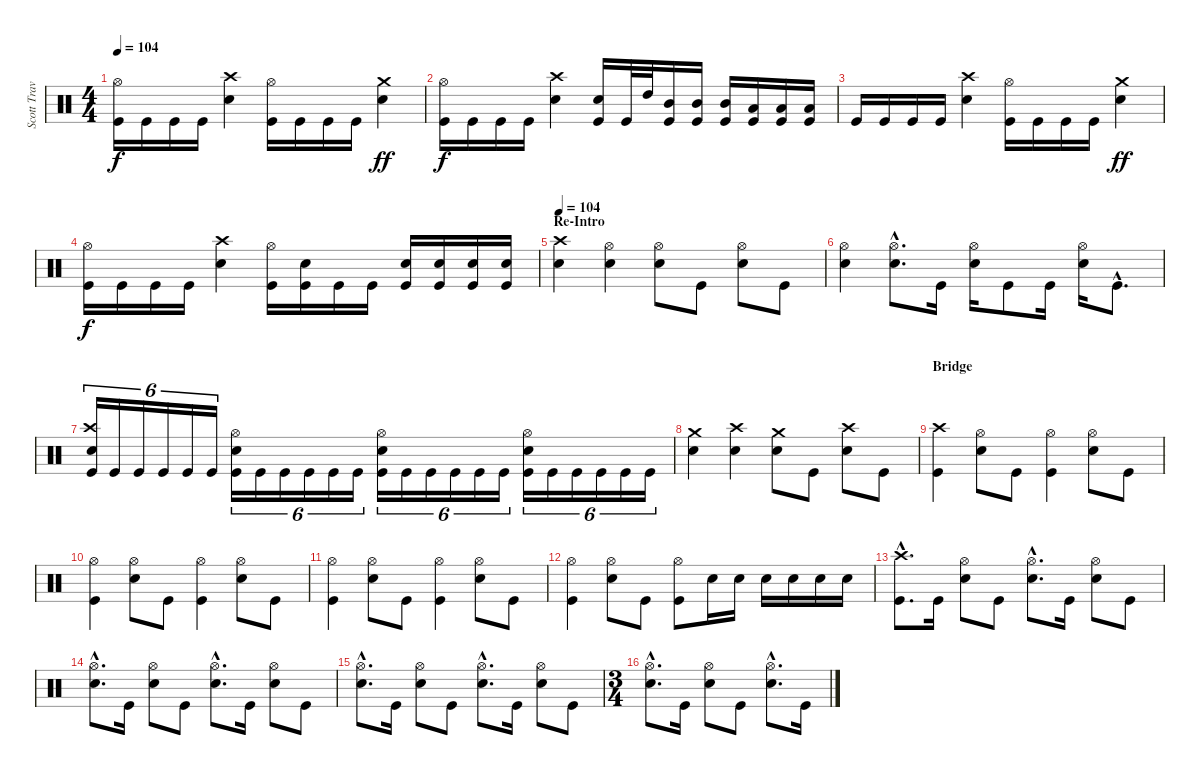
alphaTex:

\track ("Scott Travis" "Scott Trav") {instrument percussion}
\staff {score}
\articulation defaults
\ts (4 4)
\tempo 104
\clef neutral
\ks c
("Hi-Hat (open)" "Kick (hit)").16{dy f} "Kick (hit)".16 "Kick (hit)".16 "Kick (hit)".16 ("Crash high (hit)" "Electric Snare (hit)").4 ("Hi-Hat (open)" "Kick (hit)").16 "Kick (hit)".16 "Kick (hit)".16 "Kick (hit)".16 ("Crash medium (hit)" "Electric Snare (hit)").4{dy ff} |
("Hi-Hat (open)" "Kick (hit)").16{dy f} "Kick (hit)".16 "Kick (hit)".16 "Kick (hit)".16 ("Crash high (hit)" "Electric Snare (hit)").4 ("Electric Snare (hit)" "Kick (hit)").16 "Kick (hit)".32 "High Tom (hit)".32 ("Mid Tom (hit)" "Kick (hit)").16 ("Mid Tom (hit)" "Kick (hit)").16 ("Mid Tom (hit)" "Kick (hit)").16 ("Low Tom (hit)" "Kick (hit)").16 ("Low Tom (hit)" "Kick (hit)").16 ("Low Tom (hit)" "Kick (hit)").16 |
"Kick (hit)".16 "Kick (hit)".16 "Kick (hit)".16 "Kick (hit)".16 ("Crash high (hit)" "Electric Snare (hit)").4 ("Hi-Hat (open)" "Kick (hit)").16 "Kick (hit)".16 "Kick (hit)".16 "Kick (hit)".16 ("Crash medium (hit)" "Electric Snare (hit)").4{dy ff} |
("Hi-Hat (open)" "Kick (hit)").16{dy f} "Kick (hit)".16 "Kick (hit)".16 "Kick (hit)".16 ("Crash high (hit)" "Electric Snare (hit)").4 ("Hi-Hat (open)" "Kick (hit)").16 ("Electric Snare (hit)" "Kick (hit)").16 "Kick (hit)".16 "Kick (hit)".16 ("Electric Snare (hit)" "Kick (hit)").16 ("Electric Snare (hit)" "Kick (hit)").16 ("Electric Snare (hit)" "Kick (hit)").16 ("Electric Snare (hit)" "Kick (hit)").16 |
\section ("" "Re-Intro")
\tempo 104
("Crash high (hit)" "Electric Snare (hit)").4 ("Hi-Hat (open)" "Electric Snare (hit)").4 ("Hi-Hat (open)" "Electric Snare (hit)").8 "Kick (hit)".8 ("Hi-Hat (open)" "Electric Snare (hit)").8 "Kick (hit)".8 |
("Hi-Hat (open)" "Electric Snare (hit)").4 ("Hi-Hat (open)"{hac} "Electric Snare (hit)"{hac}).8{d} "Kick (hit)".16 ("Hi-Hat (open)" "Electric Snare (hit)").16 "Kick (hit)".8 "Kick (hit)".16 ("Hi-Hat (open)" "Electric Snare (hit)").16 "Kick (hit)"{hac}.8{d} |
("Crash high (hit)" "Electric Snare (hit)" "Kick (hit)").16{tu (6 4)} "Kick (hit)".16{tu (6 4)} "Kick (hit)".16{tu (6 4)} "Kick (hit)".16{tu (6 4)} "Kick (hit)".16{tu (6 4)} "Kick (hit)".16{tu (6 4)} ("Hi-Hat (open)" "Electric Snare (hit)" "Kick (hit)").16{tu (6 4)} "Kick (hit)".16{tu (6 4)} "Kick (hit)".16{tu (6 4)} "Kick (hit)".16{tu (6 4)} "Kick (hit)".16{tu (6 4)} "Kick (hit)".16{tu (6 4)} ("Hi-Hat (open)" "Electric Snare (hit)" "Kick (hit)").16{tu (6 4)} "Kick (hit)".16{tu (6 4)} "Kick (hit)".16{tu (6 4)} "Kick (hit)".16{tu (6 4)} "Kick (hit)".16{tu (6 4)} "Kick (hit)".16{tu (6 4)} ("Hi-Hat (open)" "Electric Snare (hit)" "Kick (hit)").16{tu (6 4)} "Kick (hit)".16{tu (6 4)} "Kick (hit)".16{tu (6 4)} "Kick (hit)".16{tu (6 4)} "Kick (hit)".16{tu (6 4)} "Kick (hit)".16{tu (6 4)} |
("Crash medium (hit)" "Electric Snare (hit)").4 ("Crash high (hit)" "Electric Snare (hit)").4 ("Crash medium (hit)" "Electric Snare (hit)").8 "Kick (hit)".8 ("Crash high (hit)" "Electric Snare (hit)").8 "Kick (hit)".8 |
\section ("" "Bridge")
("Crash high (hit)" "Kick (hit)").4 ("Hi-Hat (open)" "Electric Snare (hit)").8 "Kick (hit)".8 ("Hi-Hat (open)" "Kick (hit)").4 ("Hi-Hat (open)" "Electric Snare (hit)").8 "Kick (hit)".8 |
("Hi-Hat (open)" "Kick (hit)").4 ("Hi-Hat (open)" "Electric Snare (hit)").8 "Kick (hit)".8 ("Hi-Hat (open)" "Kick (hit)").4 ("Hi-Hat (open)" "Electric Snare (hit)").8 "Kick (hit)".8 |
("Hi-Hat (open)" "Kick (hit)").4 ("Hi-Hat (open)" "Electric Snare (hit)").8 "Kick (hit)".8 ("Hi-Hat (open)" "Kick (hit)").4 ("Hi-Hat (open)" "Electric Snare (hit)").8 "Kick (hit)".8 |
("Hi-Hat (open)" "Kick (hit)").4 ("Hi-Hat (open)" "Electric Snare (hit)").8 "Kick (hit)".8 ("Hi-Hat (open)" "Kick (hit)").8 "Electric Snare (hit)".16 "Electric Snare (hit)".16 "Electric Snare (hit)".16 "Electric Snare (hit)".16 "Electric Snare (hit)".16 "Electric Snare (hit)".16 |
("Crash high (hit)"{hac} "Kick (hit)"{hac}).8{d} "Kick (hit)".16 ("Hi-Hat (open)" "Electric Snare (hit)").8 "Kick (hit)".8 ("Hi-Hat (open)"{hac} "Electric Snare (hit)"{hac}).8{d} "Kick (hit)".16 ("Hi-Hat (open)" "Electric Snare (hit)").8 "Kick (hit)".8 |
("Hi-Hat (open)"{hac} "Electric Snare (hit)"{hac}).8{d} "Kick (hit)".16 ("Hi-Hat (open)" "Electric Snare (hit)").8 "Kick (hit)".8 ("Hi-Hat (open)"{hac} "Electric Snare (hit)"{hac}).8{d} "Kick (hit)".16 ("Hi-Hat (open)" "Electric Snare (hit)").8 "Kick (hit)".8 |
("Hi-Hat (open)"{hac} "Electric Snare (hit)"{hac}).8{d} "Kick (hit)".16 ("Hi-Hat (open)" "Electric Snare (hit)").8 "Kick (hit)".8 ("Hi-Hat (open)"{hac} "Electric Snare (hit)"{hac}).8{d} "Kick (hit)".16 ("Hi-Hat (open)" "Electric Snare (hit)").8 "Kick (hit)".8 |
\ts (3 4)
("Hi-Hat (open)"{hac} "Electric Snare (hit)"{hac}).8{d} "Kick (hit)".16 ("Hi-Hat (open)" "Electric Snare (hit)").8 "Kick (hit)".8 ("Hi-Hat (open)"{hac} "Electric Snare (hit)"{hac}).8{d} "Kick (hit)".16
